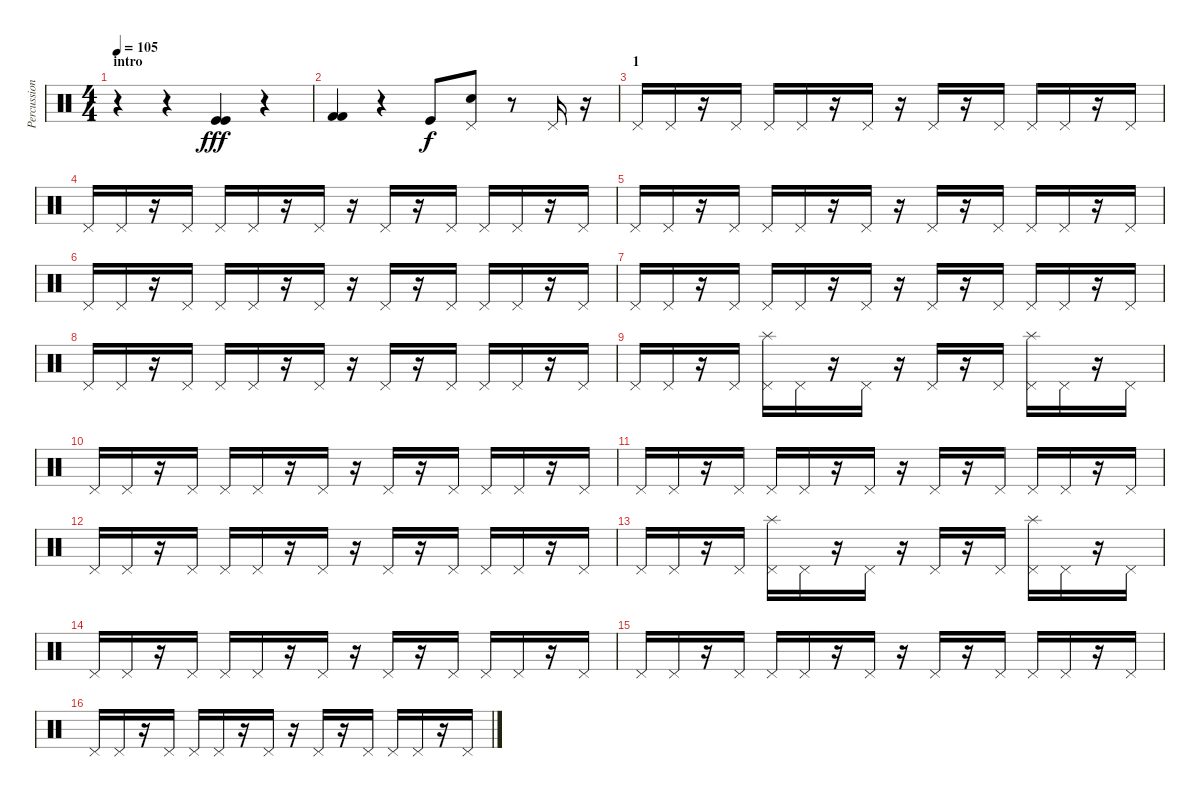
\track ("Percussions+(scratchs Dj ombre)" "Percussion") {instrument percussion}
\staff {score}
\articulation defaults
\ts (4 4)
\section ("" "intro")
\tempo 105
\clef neutral
\ks c
r.4{dy fff} r.4 ("Kick (hit)" "Kick (hit)").4 r.4 |
("Kick (hit) 2" "Kick (hit) 2").4 r.4 "Kick (hit)".8{dy f} ("Pedal Hi-Hat (hit)" "Electric Snare (hit)").8 r.8 "Pedal Hi-Hat (hit)".16 r.16 |
\section ("" "1")
"Pedal Hi-Hat (hit)".16 "Pedal Hi-Hat (hit)".16 r.16 "Pedal Hi-Hat (hit)".16 "Pedal Hi-Hat (hit)".16 "Pedal Hi-Hat (hit)".16 r.16 "Pedal Hi-Hat (hit)".16 r.16 "Pedal Hi-Hat (hit)".16 r.16 "Pedal Hi-Hat (hit)".16 "Pedal Hi-Hat (hit)".16 "Pedal Hi-Hat (hit)".16 r.16 "Pedal Hi-Hat (hit)".16 |
"Pedal Hi-Hat (hit)".16 "Pedal Hi-Hat (hit)".16 r.16 "Pedal Hi-Hat (hit)".16 "Pedal Hi-Hat (hit)".16 "Pedal Hi-Hat (hit)".16 r.16 "Pedal Hi-Hat (hit)".16 r.16 "Pedal Hi-Hat (hit)".16 r.16 "Pedal Hi-Hat (hit)".16 "Pedal Hi-Hat (hit)".16 "Pedal Hi-Hat (hit)".16 r.16 "Pedal Hi-Hat (hit)".16 |
"Pedal Hi-Hat (hit)".16 "Pedal Hi-Hat (hit)".16 r.16 "Pedal Hi-Hat (hit)".16 "Pedal Hi-Hat (hit)".16 "Pedal Hi-Hat (hit)".16 r.16 "Pedal Hi-Hat (hit)".16 r.16 "Pedal Hi-Hat (hit)".16 r.16 "Pedal Hi-Hat (hit)".16 "Pedal Hi-Hat (hit)".16 "Pedal Hi-Hat (hit)".16 r.16 "Pedal Hi-Hat (hit)".16 |
"Pedal Hi-Hat (hit)".16 "Pedal Hi-Hat (hit)".16 r.16 "Pedal Hi-Hat (hit)".16 "Pedal Hi-Hat (hit)".16 "Pedal Hi-Hat (hit)".16 r.16 "Pedal Hi-Hat (hit)".16 r.16 "Pedal Hi-Hat (hit)".16 r.16 "Pedal Hi-Hat (hit)".16 "Pedal Hi-Hat (hit)".16 "Pedal Hi-Hat (hit)".16 r.16 "Pedal Hi-Hat (hit)".16 |
"Pedal Hi-Hat (hit)".16 "Pedal Hi-Hat (hit)".16 r.16 "Pedal Hi-Hat (hit)".16 "Pedal Hi-Hat (hit)".16 "Pedal Hi-Hat (hit)".16 r.16 "Pedal Hi-Hat (hit)".16 r.16 "Pedal Hi-Hat (hit)".16 r.16 "Pedal Hi-Hat (hit)".16 "Pedal Hi-Hat (hit)".16 "Pedal Hi-Hat (hit)".16 r.16 "Pedal Hi-Hat (hit)".16 |
"Pedal Hi-Hat (hit)".16 "Pedal Hi-Hat (hit)".16 r.16 "Pedal Hi-Hat (hit)".16 "Pedal Hi-Hat (hit)".16 "Pedal Hi-Hat (hit)".16 r.16 "Pedal Hi-Hat (hit)".16 r.16 "Pedal Hi-Hat (hit)".16 r.16 "Pedal Hi-Hat (hit)".16 "Pedal Hi-Hat (hit)".16 "Pedal Hi-Hat (hit)".16 r.16 "Pedal Hi-Hat (hit)".16 |
"Pedal Hi-Hat (hit)".16 "Pedal Hi-Hat (hit)".16 r.16 "Pedal Hi-Hat (hit)".16 ("Pedal Hi-Hat (hit)" "Splash (hit)").16{volume 10 balance 16} "Pedal Hi-Hat (hit)".16{volume 10 balance 8} r.16 "Pedal Hi-Hat (hit)".16 r.16 "Pedal Hi-Hat (hit)".16 r.16 "Pedal Hi-Hat (hit)".16 ("Pedal Hi-Hat (hit)" "Splash (hit)").16{balance 0} "Pedal Hi-Hat (hit)".16{balance 8} r.16 "Pedal Hi-Hat (hit)".16 |
"Pedal Hi-Hat (hit)".16 "Pedal Hi-Hat (hit)".16 r.16 "Pedal Hi-Hat (hit)".16 "Pedal Hi-Hat (hit)".16 "Pedal Hi-Hat (hit)".16 r.16 "Pedal Hi-Hat (hit)".16 r.16 "Pedal Hi-Hat (hit)".16 r.16 "Pedal Hi-Hat (hit)".16 "Pedal Hi-Hat (hit)".16 "Pedal Hi-Hat (hit)".16 r.16 "Pedal Hi-Hat (hit)".16 |
"Pedal Hi-Hat (hit)".16 "Pedal Hi-Hat (hit)".16 r.16 "Pedal Hi-Hat (hit)".16 "Pedal Hi-Hat (hit)".16 "Pedal Hi-Hat (hit)".16 r.16 "Pedal Hi-Hat (hit)".16 r.16 "Pedal Hi-Hat (hit)".16 r.16 "Pedal Hi-Hat (hit)".16 "Pedal Hi-Hat (hit)".16 "Pedal Hi-Hat (hit)".16 r.16 "Pedal Hi-Hat (hit)".16 |
"Pedal Hi-Hat (hit)".16 "Pedal Hi-Hat (hit)".16 r.16 "Pedal Hi-Hat (hit)".16 "Pedal Hi-Hat (hit)".16 "Pedal Hi-Hat (hit)".16 r.16 "Pedal Hi-Hat (hit)".16 r.16 "Pedal Hi-Hat (hit)".16 r.16 "Pedal Hi-Hat (hit)".16 "Pedal Hi-Hat (hit)".16 "Pedal Hi-Hat (hit)".16 r.16 "Pedal Hi-Hat (hit)".16 |
"Pedal Hi-Hat (hit)".16 "Pedal Hi-Hat (hit)".16 r.16 "Pedal Hi-Hat (hit)".16 ("Pedal Hi-Hat (hit)" "Splash (hit)").16{volume 10 balance 16} "Pedal Hi-Hat (hit)".16{volume 10 balance 8} r.16 "Pedal Hi-Hat (hit)".16 r.16 "Pedal Hi-Hat (hit)".16 r.16 "Pedal Hi-Hat (hit)".16 ("Pedal Hi-Hat (hit)" "Splash (hit)").16{balance 0} "Pedal Hi-Hat (hit)".16{balance 8} r.16 "Pedal Hi-Hat (hit)".16 |
"Pedal Hi-Hat (hit)".16 "Pedal Hi-Hat (hit)".16 r.16 "Pedal Hi-Hat (hit)".16 "Pedal Hi-Hat (hit)".16 "Pedal Hi-Hat (hit)".16 r.16 "Pedal Hi-Hat (hit)".16 r.16 "Pedal Hi-Hat (hit)".16 r.16 "Pedal Hi-Hat (hit)".16 "Pedal Hi-Hat (hit)".16 "Pedal Hi-Hat (hit)".16 r.16 "Pedal Hi-Hat (hit)".16 |
"Pedal Hi-Hat (hit)".16 "Pedal Hi-Hat (hit)".16 r.16 "Pedal Hi-Hat (hit)".16 "Pedal Hi-Hat (hit)".16 "Pedal Hi-Hat (hit)".16 r.16 "Pedal Hi-Hat (hit)".16 r.16 "Pedal Hi-Hat (hit)".16 r.16 "Pedal Hi-Hat (hit)".16 "Pedal Hi-Hat (hit)".16 "Pedal Hi-Hat (hit)".16 r.16 "Pedal Hi-Hat (hit)".16 |
"Pedal Hi-Hat (hit)".16 "Pedal Hi-Hat (hit)".16 r.16 "Pedal Hi-Hat (hit)".16 "Pedal Hi-Hat (hit)".16 "Pedal Hi-Hat (hit)".16 r.16 "Pedal Hi-Hat (hit)".16 r.16 "Pedal Hi-Hat (hit)".16 r.16 "Pedal Hi-Hat (hit)".16 "Pedal Hi-Hat (hit)".16 "Pedal Hi-Hat (hit)".16 r.16 "Pedal Hi-Hat (hit)".16
